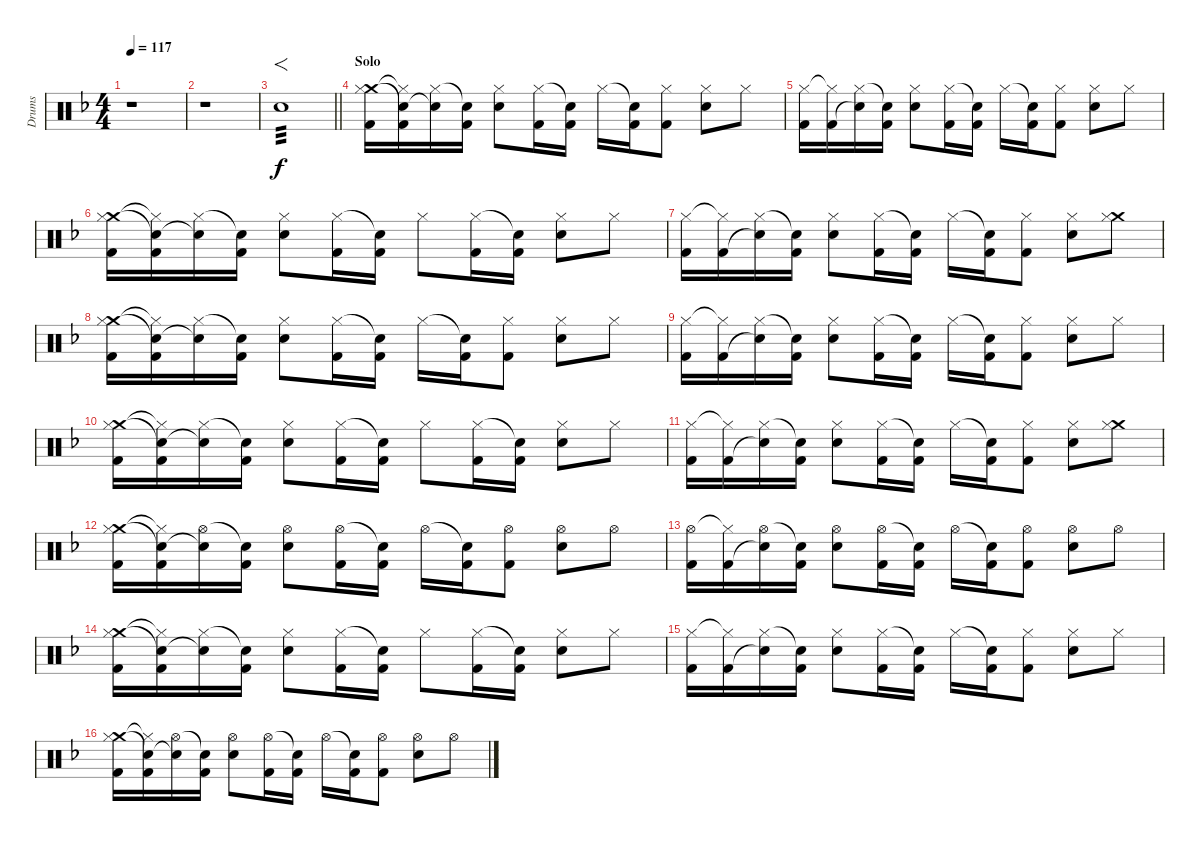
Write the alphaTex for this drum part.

\track ("Drums" "Drums") {instrument percussion}
\staff {score}
\articulation defaults
\ts (4 4)
\tempo 117
\clef neutral
\ks dminor
r.1{dy f} |
r.1 |
\barLineRight lightlight "Electric Snare (hit)".1{f tp 3}
|
\section ("" "Solo")
("Crash medium (hit)" "Hi-Hat (closed)" "Kick (hit) 2").16 ("Hi-Hat (closed)"{t} "Snare (hit)"{t} "Kick (hit) 2").16 ("Hi-Hat (closed)" "Snare (hit)"{t}).16 ("Snare (hit)"{t} "Kick (hit) 2").16 ("Hi-Hat (closed)" "Electric Snare (hit)").8 ("Hi-Hat (closed)" "Kick (hit) 2").16 ("Snare (hit)"{t} "Kick (hit) 2").16 "Hi-Hat (closed)".16 ("Snare (hit)"{t} "Kick (hit) 2").16 ("Hi-Hat (closed)" "Kick (hit) 2").8 ("Hi-Hat (closed)" "Electric Snare (hit)").8 "Hi-Hat (closed)".8 |
("Hi-Hat (closed)" "Kick (hit) 2").16 ("Hi-Hat (closed)"{t} "Kick (hit) 2").16 ("Hi-Hat (closed)" "Snare (hit)"{t}).16 ("Snare (hit)"{t} "Kick (hit) 2").16 ("Hi-Hat (closed)" "Electric Snare (hit)").8 ("Hi-Hat (closed)" "Kick (hit) 2").16 ("Snare (hit)"{t} "Kick (hit) 2").16 "Hi-Hat (closed)".16 ("Snare (hit)"{t} "Kick (hit) 2").16 ("Hi-Hat (closed)" "Kick (hit) 2").8 ("Hi-Hat (closed)" "Electric Snare (hit)").8 "Hi-Hat (closed)".8 |
("Crash medium (hit)" "Hi-Hat (closed)" "Kick (hit) 2").16 ("Hi-Hat (closed)"{t} "Snare (hit)"{t} "Kick (hit) 2").16 ("Hi-Hat (closed)" "Snare (hit)"{t}).16 ("Snare (hit)"{t} "Kick (hit) 2").16 ("Hi-Hat (closed)" "Electric Snare (hit)").8 ("Hi-Hat (closed)" "Kick (hit) 2").16 ("Snare (hit)"{t} "Kick (hit) 2").16 "Hi-Hat (closed)".8 ("Hi-Hat (closed)" "Kick (hit) 2").16 ("Snare (hit)"{t} "Kick (hit) 2").16 ("Hi-Hat (closed)" "Electric Snare (hit)").8 "Hi-Hat (closed)".8 |
("Hi-Hat (closed)" "Kick (hit) 2").16 ("Hi-Hat (closed)"{t} "Kick (hit) 2").16 ("Hi-Hat (closed)" "Snare (hit)"{t}).16 ("Snare (hit)"{t} "Kick (hit) 2").16 ("Hi-Hat (closed)" "Electric Snare (hit)").8 ("Hi-Hat (closed)" "Kick (hit) 2").16 ("Snare (hit)"{t} "Kick (hit) 2").16 "Hi-Hat (closed)".16 ("Snare (hit)"{t} "Kick (hit) 2").16 ("Hi-Hat (closed)" "Kick (hit) 2").8 ("Hi-Hat (closed)" "Electric Snare (hit)").8 ("Crash medium (hit)" "Hi-Hat (closed)").8 |
("Crash medium (hit)" "Hi-Hat (closed)" "Kick (hit) 2").16 ("Hi-Hat (closed)"{t} "Snare (hit)"{t} "Kick (hit) 2").16 ("Hi-Hat (closed)" "Snare (hit)"{t}).16 ("Snare (hit)"{t} "Kick (hit) 2").16 ("Hi-Hat (closed)" "Electric Snare (hit)").8 ("Hi-Hat (closed)" "Kick (hit) 2").16 ("Snare (hit)"{t} "Kick (hit) 2").16 "Hi-Hat (closed)".16 ("Snare (hit)"{t} "Kick (hit) 2").16 ("Hi-Hat (closed)" "Kick (hit) 2").8 ("Hi-Hat (closed)" "Electric Snare (hit)").8 "Hi-Hat (closed)".8 |
("Hi-Hat (closed)" "Kick (hit) 2").16 ("Hi-Hat (closed)"{t} "Kick (hit) 2").16 ("Hi-Hat (closed)" "Snare (hit)"{t}).16 ("Snare (hit)"{t} "Kick (hit) 2").16 ("Hi-Hat (closed)" "Electric Snare (hit)").8 ("Hi-Hat (closed)" "Kick (hit) 2").16 ("Snare (hit)"{t} "Kick (hit) 2").16 "Hi-Hat (closed)".16 ("Snare (hit)"{t} "Kick (hit) 2").16 ("Hi-Hat (closed)" "Kick (hit) 2").8 ("Hi-Hat (closed)" "Electric Snare (hit)").8 "Hi-Hat (closed)".8 |
("Crash medium (hit)" "Hi-Hat (closed)" "Kick (hit) 2").16 ("Hi-Hat (closed)"{t} "Snare (hit)"{t} "Kick (hit) 2").16 ("Hi-Hat (closed)" "Snare (hit)"{t}).16 ("Snare (hit)"{t} "Kick (hit) 2").16 ("Hi-Hat (closed)" "Electric Snare (hit)").8 ("Hi-Hat (closed)" "Kick (hit) 2").16 ("Snare (hit)"{t} "Kick (hit) 2").16 "Hi-Hat (closed)".8 ("Hi-Hat (closed)" "Kick (hit) 2").16 ("Snare (hit)"{t} "Kick (hit) 2").16 ("Hi-Hat (closed)" "Electric Snare (hit)").8 "Hi-Hat (closed)".8 |
("Hi-Hat (closed)" "Kick (hit) 2").16 ("Hi-Hat (closed)"{t} "Kick (hit) 2").16 ("Hi-Hat (closed)" "Snare (hit)"{t}).16 ("Snare (hit)"{t} "Kick (hit) 2").16 ("Hi-Hat (closed)" "Electric Snare (hit)").8 ("Hi-Hat (closed)" "Kick (hit) 2").16 ("Snare (hit)"{t} "Kick (hit) 2").16 "Hi-Hat (closed)".16 ("Snare (hit)"{t} "Kick (hit) 2").16 ("Hi-Hat (closed)" "Kick (hit) 2").8 ("Hi-Hat (closed)" "Electric Snare (hit)").8 ("Crash medium (hit)" "Hi-Hat (closed)").8 |
("Crash medium (hit)" "Hi-Hat (closed)" "Kick (hit) 2").16 ("Hi-Hat (closed)"{t} "Snare (hit)"{t} "Kick (hit) 2").16 ("Hi-Hat (open)" "Snare (hit)"{t}).16 ("Snare (hit)"{t} "Kick (hit) 2").16 ("Hi-Hat (open)" "Electric Snare (hit)").8 ("Hi-Hat (open)" "Kick (hit) 2").16 ("Snare (hit)"{t} "Kick (hit) 2").16 "Hi-Hat (open)".16 ("Snare (hit)"{t} "Kick (hit) 2").16 ("Hi-Hat (open)" "Kick (hit) 2").8 ("Hi-Hat (open)" "Electric Snare (hit)").8 "Hi-Hat (open)".8 |
("Hi-Hat (open)" "Kick (hit) 2").16 ("Hi-Hat (closed)"{t} "Kick (hit) 2").16 ("Hi-Hat (open)" "Snare (hit)"{t}).16 ("Snare (hit)"{t} "Kick (hit) 2").16 ("Hi-Hat (open)" "Electric Snare (hit)").8 ("Hi-Hat (open)" "Kick (hit) 2").16 ("Snare (hit)"{t} "Kick (hit) 2").16 "Hi-Hat (open)".16 ("Snare (hit)"{t} "Kick (hit) 2").16 ("Hi-Hat (open)" "Kick (hit) 2").8 ("Hi-Hat (open)" "Electric Snare (hit)").8 "Hi-Hat (open)".8 |
("Crash medium (hit)" "Hi-Hat (closed)" "Kick (hit) 2").16 ("Hi-Hat (closed)"{t} "Snare (hit)"{t} "Kick (hit) 2").16 ("Hi-Hat (closed)" "Snare (hit)"{t}).16 ("Snare (hit)"{t} "Kick (hit) 2").16 ("Hi-Hat (closed)" "Electric Snare (hit)").8 ("Hi-Hat (closed)" "Kick (hit) 2").16 ("Snare (hit)"{t} "Kick (hit) 2").16 "Hi-Hat (closed)".8 ("Hi-Hat (closed)" "Kick (hit) 2").16 ("Snare (hit)"{t} "Kick (hit) 2").16 ("Hi-Hat (closed)" "Electric Snare (hit)").8 "Hi-Hat (closed)".8 |
("Hi-Hat (closed)" "Kick (hit) 2").16 ("Hi-Hat (closed)"{t} "Kick (hit) 2").16 ("Hi-Hat (closed)" "Snare (hit)"{t}).16 ("Snare (hit)"{t} "Kick (hit) 2").16 ("Hi-Hat (closed)" "Electric Snare (hit)").8 ("Hi-Hat (closed)" "Kick (hit) 2").16 ("Snare (hit)"{t} "Kick (hit) 2").16 "Hi-Hat (closed)".16 ("Snare (hit)"{t} "Kick (hit) 2").16 ("Hi-Hat (closed)" "Kick (hit) 2").8 ("Hi-Hat (closed)" "Electric Snare (hit)").8 "Hi-Hat (closed)".8 |
("Crash medium (hit)" "Hi-Hat (closed)" "Kick (hit) 2").16 ("Hi-Hat (closed)"{t} "Snare (hit)"{t} "Kick (hit) 2").16 ("Hi-Hat (open)" "Snare (hit)"{t}).16 ("Snare (hit)"{t} "Kick (hit) 2").16 ("Hi-Hat (open)" "Electric Snare (hit)").8 ("Hi-Hat (open)" "Kick (hit) 2").16 ("Snare (hit)"{t} "Kick (hit) 2").16 "Hi-Hat (open)".16 ("Snare (hit)"{t} "Kick (hit) 2").16 ("Hi-Hat (open)" "Kick (hit) 2").8 ("Hi-Hat (open)" "Electric Snare (hit)").8 "Hi-Hat (open)".8
